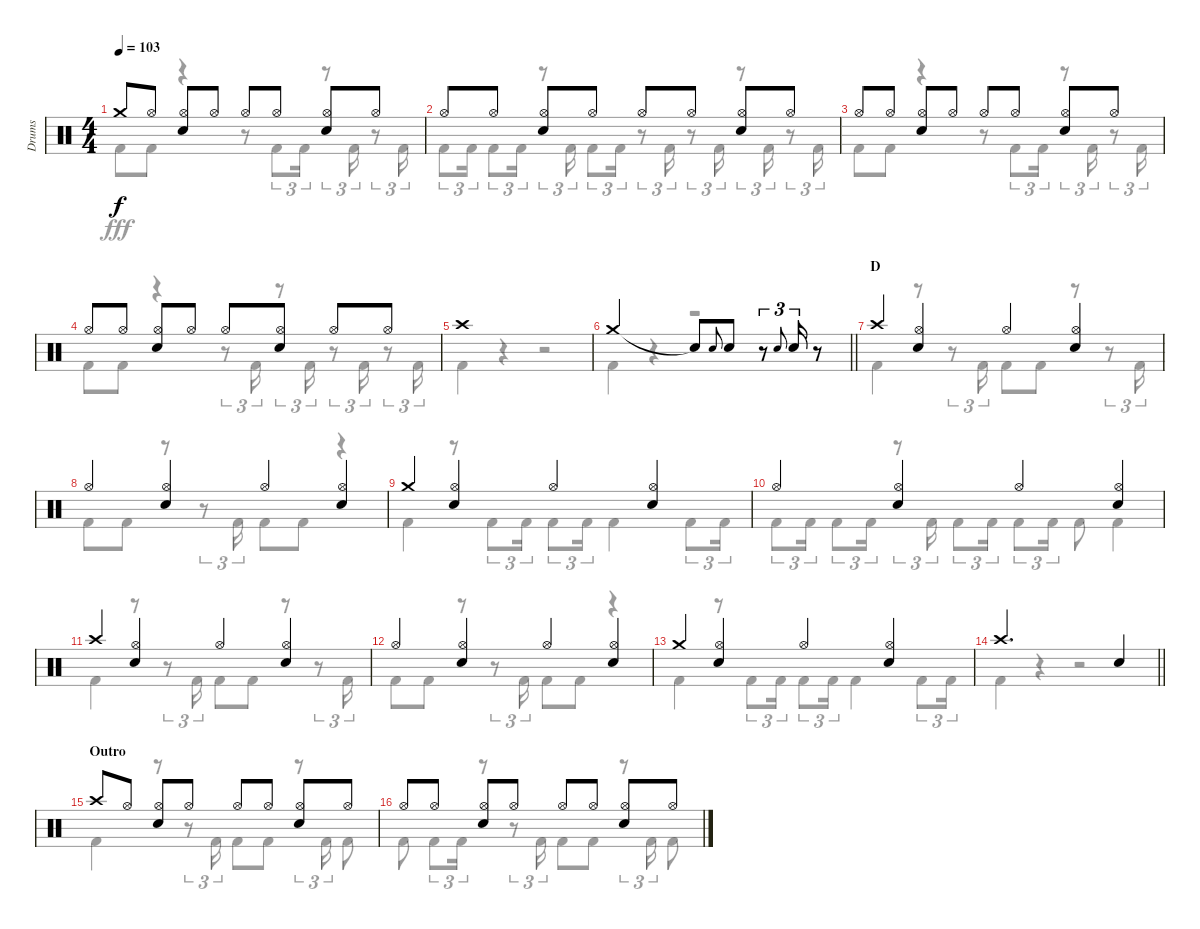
\track ("Drums" "Drums") {instrument percussion}
\staff {score}
\articulation defaults
\voice
\ts (4 4)
\tempo 103
\clef neutral
\ks c "Crash medium (hit)".8{dy f} "Hi-Hat (open)".8
("Hi-Hat (open)" "Snare (hit) 2").8 "Hi-Hat (open)".8 "Hi-Hat (open)".8 "Hi-Hat (open)".8 ("Hi-Hat (open)" "Snare (hit) 2").8 "Hi-Hat (open)".8 |
"Hi-Hat (open)".8 "Hi-Hat (open)".8 ("Hi-Hat (open)" "Snare (hit) 2").8 "Hi-Hat (open)".8 "Hi-Hat (open)".8 "Hi-Hat (open)".8 ("Hi-Hat (open)" "Snare (hit) 2").8 "Hi-Hat (open)".8 |
"Hi-Hat (open)".8 "Hi-Hat (open)".8 ("Hi-Hat (open)" "Snare (hit) 2").8 "Hi-Hat (open)".8 "Hi-Hat (open)".8 "Hi-Hat (open)".8 ("Hi-Hat (open)" "Snare (hit) 2").8 "Hi-Hat (open)".8 |
"Hi-Hat (open)".8 "Hi-Hat (open)".8 ("Hi-Hat (open)" "Snare (hit) 2").8 "Hi-Hat (open)".8 "Hi-Hat (open)".8 ("Hi-Hat (open)" "Snare (hit) 2").8 "Hi-Hat (open)".8 "Hi-Hat (open)".8 |
"Crash high (hit)".1 |
\barLineRight lightlight "Crash medium (hit)".2 "Snare (hit)"{t}.8 "Snare (hit) 2".8{gr onbeat} "Snare (hit) 2".8
r.8{tu (3 2)} "Snare (hit) 2".8{gr onbeat} "Snare (hit) 2".16{tu (3 2)} r.8 |
\section ("" "D")
"Crash high (hit)".4 ("Hi-Hat (open)" "Snare (hit) 2").4 "Hi-Hat (open)".4 ("Hi-Hat (open)" "Snare (hit) 2").4 |
"Hi-Hat (open)".4 ("Hi-Hat (open)" "Snare (hit) 2").4 "Hi-Hat (open)".4 ("Hi-Hat (open)" "Snare (hit) 2").4 |
"Crash medium (hit)".4 ("Hi-Hat (open)" "Snare (hit) 2").4 "Hi-Hat (open)".4 ("Hi-Hat (open)" "Snare (hit) 2").4 |
"Hi-Hat (open)".4 ("Hi-Hat (open)" "Snare (hit) 2").4 "Hi-Hat (open)".4 ("Hi-Hat (open)" "Snare (hit) 2").4 |
"Crash high (hit)".4 ("Hi-Hat (open)" "Snare (hit) 2").4 "Hi-Hat (open)".4 ("Hi-Hat (open)" "Snare (hit) 2").4 |
"Hi-Hat (open)".4 ("Hi-Hat (open)" "Snare (hit) 2").4 "Hi-Hat (open)".4 ("Hi-Hat (open)" "Snare (hit) 2").4 |
"Crash medium (hit)".4 ("Hi-Hat (open)" "Snare (hit) 2").4 "Hi-Hat (open)".4 ("Hi-Hat (open)" "Snare (hit) 2").4 |
\barLineRight lightlight "Crash high (hit)".2{d} "Snare (hit) 2".4
|
\section ("" "Outro")
"Crash high (hit)".8 "Hi-Hat (open)".8 ("Hi-Hat (open)" "Snare (hit) 2").8 "Hi-Hat (open)".8 "Hi-Hat (open)".8 "Hi-Hat (open)".8 ("Hi-Hat (open)" "Snare (hit) 2").8 "Hi-Hat (open)".8 |
"Hi-Hat (open)".8 "Hi-Hat (open)".8 ("Hi-Hat (open)" "Snare (hit) 2").8 "Hi-Hat (open)".8 "Hi-Hat (open)".8 "Hi-Hat (open)".8 ("Hi-Hat (open)" "Snare (hit) 2").8 "Hi-Hat (open)".8
\voice
\clef neutral
\ottava regular
\simile none
\ks c "Kick (hit) 2".8{dy fff} "Kick (hit) 2".8
r.4 r.8 "Kick (hit) 2".8{tu (3 2)} "Kick (hit) 2".16{tu (3 2)} r.8{tu (3 2)} "Kick (hit) 2".16{tu (3 2)} r.8{tu (3 2)} "Kick (hit) 2".16{tu (3 2)} |
"Kick (hit) 2".8{tu (3 2)} "Kick (hit) 2".16{tu (3 2)} "Kick (hit) 2".8{tu (3 2)} "Kick (hit) 2".16{tu (3 2)} r.8{tu (3 2)} "Kick (hit) 2".16{tu (3 2)} "Kick (hit) 2".8{tu (3 2)} "Kick (hit) 2".16{tu (3 2)} r.8{tu (3 2)} "Kick (hit) 2".16{tu (3 2)} r.8{tu (3 2)} "Kick (hit) 2".16{tu (3 2)} r.8{tu (3 2)} "Kick (hit) 2".16{tu (3 2)} r.8{tu (3 2)} "Kick (hit) 2".16{tu (3 2)} |
"Kick (hit) 2".8 "Kick (hit) 2".8 r.4 r.8 "Kick (hit) 2".8{tu (3 2)} "Kick (hit) 2".16{tu (3 2)} r.8{tu (3 2)} "Kick (hit) 2".16{tu (3 2)} r.8{tu (3 2)} "Kick (hit) 2".16{tu (3 2)} |
"Kick (hit) 2".8 "Kick (hit) 2".8 r.4 r.8{tu (3 2)} "Kick (hit) 2".16{tu (3 2)} r.8{tu (3 2)} "Kick (hit) 2".16{tu (3 2)} r.8{tu (3 2)} "Kick (hit) 2".16{tu (3 2)} r.8{tu (3 2)} "Kick (hit) 2".16{tu (3 2)} |
"Kick (hit) 2".4 r.4 r.2 |
\barLineRight lightlight "Kick (hit) 2".4
r.4 r.2 |
"Kick (hit) 2".4 r.8 r.8{tu (3 2)} "Kick (hit) 2".16{tu (3 2)} "Kick (hit) 2".8 "Kick (hit) 2".8 r.8 r.8{tu (3 2)} "Kick (hit) 2".16{tu (3 2)} |
"Kick (hit) 2".8 "Kick (hit) 2".8 r.8 r.8{tu (3 2)} "Kick (hit) 2".16{tu (3 2)} "Kick (hit) 2".8 "Kick (hit) 2".8 r.4 |
"Kick (hit) 2".4 r.8 "Kick (hit) 2".8{tu (3 2)} "Kick (hit) 2".16{tu (3 2)} "Kick (hit) 2".8{tu (3 2)} "Kick (hit) 2".16{tu (3 2)} "Kick (hit) 2".4 "Kick (hit) 2".8{tu (3 2)} "Kick (hit) 2".16{tu (3 2)} |
"Kick (hit) 2".8{tu (3 2)} "Kick (hit) 2".16{tu (3 2)} "Kick (hit) 2".8{tu (3 2)} "Kick (hit) 2".16{tu (3 2)} r.8{tu (3 2)} "Kick (hit) 2".16{tu (3 2)} "Kick (hit) 2".8{tu (3 2)} "Kick (hit) 2".16{tu (3 2)} "Kick (hit) 2".8{tu (3 2)} "Kick (hit) 2".16{tu (3 2)} "Kick (hit) 2".8 "Kick (hit) 2".4 |
"Kick (hit) 2".4 r.8 r.8{tu (3 2)} "Kick (hit) 2".16{tu (3 2)} "Kick (hit) 2".8 "Kick (hit) 2".8 r.8 r.8{tu (3 2)} "Kick (hit) 2".16{tu (3 2)} |
"Kick (hit) 2".8 "Kick (hit) 2".8 r.8 r.8{tu (3 2)} "Kick (hit) 2".16{tu (3 2)} "Kick (hit) 2".8 "Kick (hit) 2".8 r.4 |
"Kick (hit) 2".4 r.8 "Kick (hit) 2".8{tu (3 2)} "Kick (hit) 2".16{tu (3 2)} "Kick (hit) 2".8{tu (3 2)} "Kick (hit) 2".16{tu (3 2)} "Kick (hit) 2".4 "Kick (hit) 2".8{tu (3 2)} "Kick (hit) 2".16{tu (3 2)} |
\barLineRight lightlight "Kick (hit) 2".4
r.4 r.2 |
"Kick (hit) 2".4 r.8 r.8{tu (3 2)} "Kick (hit) 2".16{tu (3 2)} "Kick (hit) 2".8 "Kick (hit) 2".8 r.8{tu (3 2)} "Kick (hit) 2".16{tu (3 2)} "Kick (hit) 2".8 |
"Kick (hit) 2".8 "Kick (hit) 2".8{tu (3 2)} "Kick (hit) 2".16{tu (3 2)} r.8 r.8{tu (3 2)} "Kick (hit) 2".16{tu (3 2)} "Kick (hit) 2".8 "Kick (hit) 2".8 r.8{tu (3 2)} "Kick (hit) 2".16{tu (3 2)} "Kick (hit) 2".8
